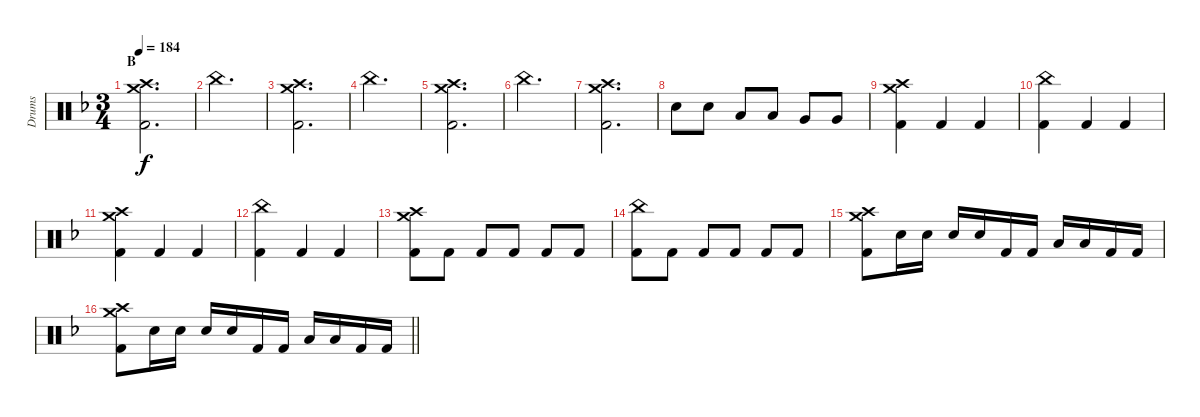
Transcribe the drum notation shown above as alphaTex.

\track ("Drums" "Drums") {instrument percussion}
\staff {score}
\articulation defaults
\ts (3 4)
\section ("" "B")
\tempo 184
\clef neutral
\ks f
("Crash medium (hit)" "Crash high (hit)" "Kick (hit) 2").2{d dy f} |
"China (hit)".2{d} |
("Crash medium (hit)" "Crash high (hit)" "Kick (hit) 2").2{d} |
"China (hit)".2{d} |
("Crash medium (hit)" "Crash high (hit)" "Kick (hit) 2").2{d} |
"China (hit)".2{d} |
("Crash medium (hit)" "Crash high (hit)" "Kick (hit) 2").2{d} |
"Electric Snare (hit)".8 "Electric Snare (hit)".8 "Low Tom (hit)".8 "Low Tom (hit)".8 "Very Low Tom (hit)".8 "Very Low Tom (hit)".8 |
("Crash medium (hit)" "Crash high (hit)" "Kick (hit) 2").4 "Kick (hit) 2".4 "Kick (hit) 2".4 |
("China (hit)" "Kick (hit) 2").4 "Kick (hit) 2".4 "Kick (hit) 2".4 |
("Crash medium (hit)" "Crash high (hit)" "Kick (hit) 2").4 "Kick (hit) 2".4 "Kick (hit) 2".4 |
("China (hit)" "Kick (hit) 2").4 "Kick (hit) 2".4 "Kick (hit) 2".4 |
("Crash medium (hit)" "Crash high (hit)" "Kick (hit) 2").8 "Kick (hit) 2".8 "Kick (hit) 2".8 "Kick (hit) 2".8 "Kick (hit) 2".8 "Kick (hit) 2".8 |
("China (hit)" "Kick (hit) 2").8 "Kick (hit) 2".8 "Kick (hit) 2".8 "Kick (hit) 2".8 "Kick (hit) 2".8 "Kick (hit) 2".8 |
("Crash medium (hit)" "Crash high (hit)" "Kick (hit) 2").8 "Electric Snare (hit)".16 "Electric Snare (hit)".16 "Electric Snare (hit)".16 "Electric Snare (hit)".16 "Kick (hit) 2".16 "Kick (hit) 2".16 "Low Tom (hit)".16 "Low Tom (hit)".16 "Kick (hit) 2".16 "Kick (hit) 2".16 |
\barLineRight lightlight
("Crash medium (hit)" "Crash high (hit)" "Kick (hit) 2").8 "Electric Snare (hit)".16 "Electric Snare (hit)".16 "Electric Snare (hit)".16 "Electric Snare (hit)".16 "Kick (hit) 2".16 "Kick (hit) 2".16 "Low Tom (hit)".16 "Low Tom (hit)".16 "Kick (hit) 2".16 "Kick (hit) 2".16
